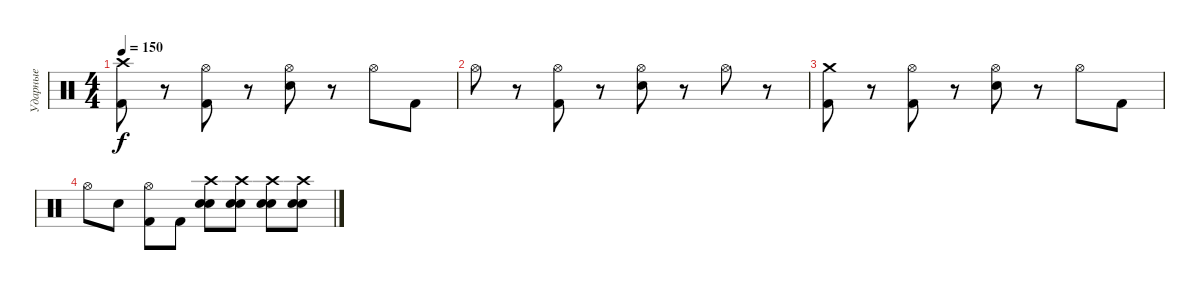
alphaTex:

\track ("Ударные" "Ударные") {instrument percussion}
\staff {score}
\articulation defaults
\ts (4 4)
\tempo 150
\clef neutral
\ks c
("Crash high (hit)" "Kick (hit) 2").8{dy f} r.8 ("Hi-Hat (open)" "Kick (hit) 2").8 r.8 ("Hi-Hat (open)" "Snare (hit) 2").8 r.8 "Hi-Hat (open)".8 "Kick (hit) 2".8 |
"Hi-Hat (open)".8 r.8 ("Hi-Hat (open)" "Kick (hit) 2").8 r.8 ("Hi-Hat (open)" "Snare (hit) 2").8 r.8 "Hi-Hat (open)".8 r.8 |
("Crash medium (hit)" "Kick (hit) 2").8 r.8 ("Hi-Hat (open)" "Kick (hit) 2").8 r.8 ("Hi-Hat (open)" "Snare (hit) 2").8 r.8 "Hi-Hat (open)".8 "Kick (hit) 2".8 |
"Hi-Hat (open)".8 "Snare (hit) 2".8 ("Hi-Hat (open)" "Kick (hit) 2").8 "Kick (hit) 2".8 ("Crash high (hit)" "Snare (hit) 2" "Snare (hit) 2").8 ("Crash high (hit)" "Snare (hit) 2" "Snare (hit) 2").8 ("Crash high (hit)" "Snare (hit) 2" "Snare (hit) 2").8 ("Crash high (hit)" "Snare (hit) 2" "Snare (hit) 2").8
